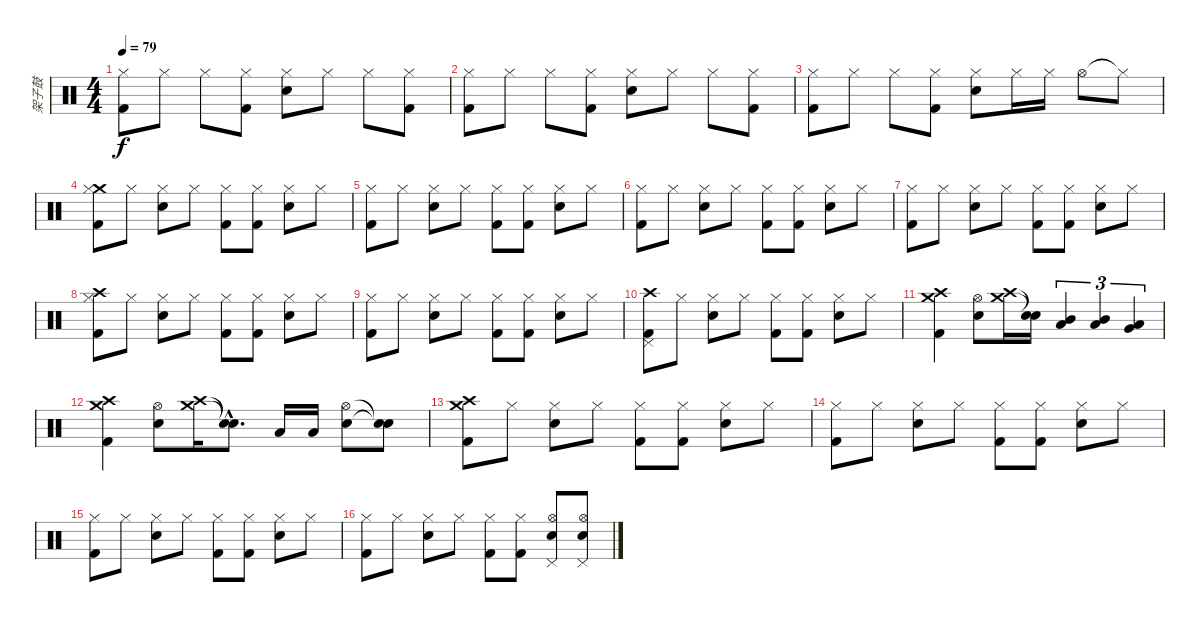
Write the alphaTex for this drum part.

\track ("架子鼓" "架子鼓") {instrument percussion}
\staff {score}
\articulation defaults
\ts (4 4)
\tempo 79
\clef neutral
\ks c
("Hi-Hat (closed)" "Kick (hit) 2").8{dy f} "Hi-Hat (closed)".8 "Hi-Hat (closed)".8 ("Hi-Hat (closed)" "Kick (hit) 2").8 ("Hi-Hat (closed)" "Electric Snare (hit)").8 "Hi-Hat (closed)".8 "Hi-Hat (closed)".8 ("Hi-Hat (closed)" "Kick (hit) 2").8 |
("Hi-Hat (closed)" "Kick (hit) 2").8 "Hi-Hat (closed)".8 "Hi-Hat (closed)".8 ("Hi-Hat (closed)" "Kick (hit) 2").8 ("Hi-Hat (closed)" "Electric Snare (hit)").8 "Hi-Hat (closed)".8 "Hi-Hat (closed)".8 ("Hi-Hat (closed)" "Kick (hit) 2").8 |
("Hi-Hat (closed)" "Kick (hit) 2").8 "Hi-Hat (closed)".8 "Hi-Hat (closed)".8 ("Hi-Hat (closed)" "Kick (hit) 2").8 ("Hi-Hat (closed)" "Electric Snare (hit)").8 "Hi-Hat (closed)".16 "Hi-Hat (closed)".16 "Hi-Hat (open)".8 "Hi-Hat (closed)"{t}.8 |
("Crash medium (hit)" "Hi-Hat (closed)" "Kick (hit) 2").8 "Hi-Hat (closed)".8 ("Hi-Hat (closed)" "Electric Snare (hit)").8 "Hi-Hat (closed)".8 ("Hi-Hat (closed)" "Kick (hit) 2").8 ("Hi-Hat (closed)" "Kick (hit) 2").8 ("Hi-Hat (closed)" "Electric Snare (hit)").8 "Hi-Hat (closed)".8 |
("Hi-Hat (closed)" "Kick (hit) 2").8 "Hi-Hat (closed)".8 ("Hi-Hat (closed)" "Electric Snare (hit)").8 "Hi-Hat (closed)".8 ("Hi-Hat (closed)" "Kick (hit) 2").8 ("Hi-Hat (closed)" "Kick (hit) 2").8 ("Hi-Hat (closed)" "Electric Snare (hit)").8 "Hi-Hat (closed)".8 |
("Hi-Hat (closed)" "Kick (hit) 2").8 "Hi-Hat (closed)".8 ("Hi-Hat (closed)" "Electric Snare (hit)").8 "Hi-Hat (closed)".8 ("Hi-Hat (closed)" "Kick (hit) 2").8 ("Hi-Hat (closed)" "Kick (hit) 2").8 ("Hi-Hat (closed)" "Electric Snare (hit)").8 "Hi-Hat (closed)".8 |
("Hi-Hat (closed)" "Kick (hit) 2").8 "Hi-Hat (closed)".8 ("Hi-Hat (closed)" "Electric Snare (hit)").8 "Hi-Hat (closed)".8 ("Hi-Hat (closed)" "Kick (hit) 2").8 ("Hi-Hat (closed)" "Kick (hit) 2").8 ("Hi-Hat (closed)" "Electric Snare (hit)").8 "Hi-Hat (closed)".8 |
("Crash high (hit)" "Hi-Hat (closed)" "Kick (hit) 2").8 "Hi-Hat (closed)".8 ("Hi-Hat (closed)" "Electric Snare (hit)").8 "Hi-Hat (closed)".8 ("Hi-Hat (closed)" "Kick (hit) 2").8 ("Hi-Hat (closed)" "Kick (hit) 2").8 ("Hi-Hat (closed)" "Electric Snare (hit)").8 "Hi-Hat (closed)".8 |
("Hi-Hat (closed)" "Kick (hit) 2").8 "Hi-Hat (closed)".8 ("Hi-Hat (closed)" "Electric Snare (hit)").8 "Hi-Hat (closed)".8 ("Hi-Hat (closed)" "Kick (hit) 2").8 ("Hi-Hat (closed)" "Kick (hit) 2").8 ("Hi-Hat (closed)" "Electric Snare (hit)").8 "Hi-Hat (closed)".8 |
("Crash high (hit)" "Pedal Hi-Hat (hit)" "Kick (hit) 2").8 "Hi-Hat (closed)".8 ("Hi-Hat (closed)" "Electric Snare (hit)").8 "Hi-Hat (closed)".8 ("Hi-Hat (closed)" "Kick (hit) 2").8 ("Hi-Hat (closed)" "Kick (hit) 2").8 ("Hi-Hat (closed)" "Electric Snare (hit)").8 "Hi-Hat (closed)".8 |
("Crash medium (hit)" "Crash high (hit)" "Kick (hit) 2").4 ("Hi-Hat (open)" "Electric Snare (hit)").8 ("Crash medium (hit)" "Crash high (hit)").16 ("Snare (hit)"{t} "Snare (hit)"{t}).16 ("Low Tom (hit)" "Mid Tom (hit)").4{tu (3 2)} ("Low Tom (hit)" "Mid Tom (hit)").4{tu (3 2)} ("Very Low Tom (hit)" "Low Tom (hit)").4{tu (3 2)} |
("Crash medium (hit)" "Crash high (hit)" "Kick (hit) 2").4 ("Hi-Hat (open)" "Electric Snare (hit)").8 ("Crash medium (hit)" "Crash high (hit)").16 ("Snare (hit)"{hac t} "Snare (hit)"{hac t}).8{d} "Low Tom (hit)".16 "Low Tom (hit)".16 ("Hi-Hat (open)" "Electric Snare (hit)").8 ("Snare (hit)"{t} "Electric Snare (hit)"{t}).8 |
("Crash medium (hit)" "Crash high (hit)" "Kick (hit) 2").8 "Hi-Hat (closed)".8 ("Hi-Hat (closed)" "Electric Snare (hit)").8 "Hi-Hat (closed)".8 ("Hi-Hat (closed)" "Kick (hit) 2").8 ("Hi-Hat (closed)" "Kick (hit) 2").8 ("Hi-Hat (closed)" "Electric Snare (hit)").8 "Hi-Hat (closed)".8 |
("Hi-Hat (closed)" "Kick (hit) 2").8 "Hi-Hat (closed)".8 ("Hi-Hat (closed)" "Electric Snare (hit)").8 "Hi-Hat (closed)".8 ("Hi-Hat (closed)" "Kick (hit) 2").8 ("Hi-Hat (closed)" "Kick (hit) 2").8 ("Hi-Hat (closed)" "Electric Snare (hit)").8 "Hi-Hat (closed)".8 |
("Hi-Hat (closed)" "Kick (hit) 2").8 "Hi-Hat (closed)".8 ("Hi-Hat (closed)" "Electric Snare (hit)").8 "Hi-Hat (closed)".8 ("Hi-Hat (closed)" "Kick (hit) 2").8 ("Hi-Hat (closed)" "Kick (hit) 2").8 ("Hi-Hat (closed)" "Electric Snare (hit)").8 "Hi-Hat (closed)".8 |
("Hi-Hat (closed)" "Kick (hit) 2").8 "Hi-Hat (closed)".8 ("Hi-Hat (closed)" "Electric Snare (hit)").8 "Hi-Hat (closed)".8 ("Hi-Hat (closed)" "Kick (hit) 2").8 ("Hi-Hat (closed)" "Kick (hit) 2").8 ("Pedal Hi-Hat (hit)" "Hi-Hat (open)" "Electric Snare (hit)").8 ("Pedal Hi-Hat (hit)" "Hi-Hat (open)" "Electric Snare (hit)").8
